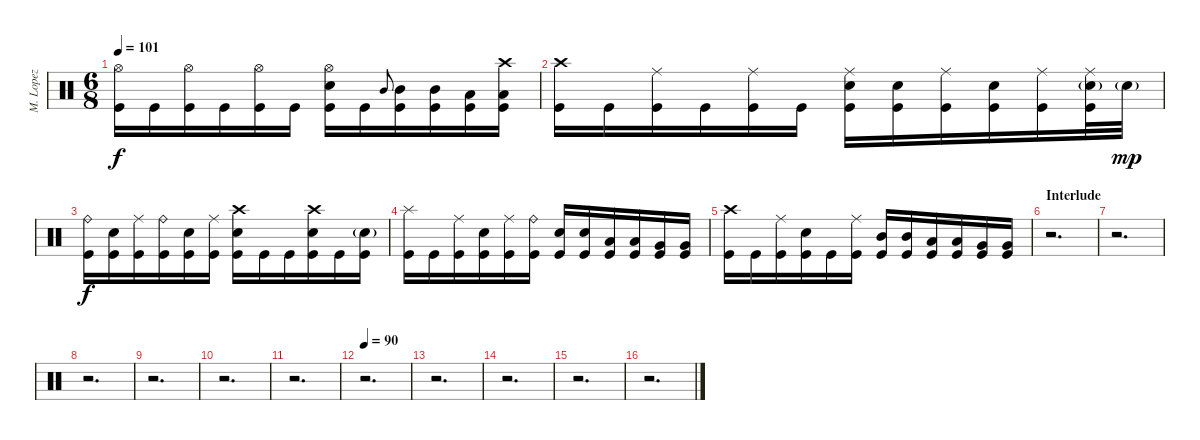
\track ("M. Lopez" "M. Lopez") {instrument percussion}
\staff {score}
\articulation defaults
\ts (6 8)
\tempo 101
\clef neutral
\ks c
("Hi-Hat (open)" "Kick (hit)").16{dy f} "Kick (hit)".16 ("Hi-Hat (open)" "Kick (hit)").16 "Kick (hit)".16 ("Hi-Hat (open)" "Kick (hit)").16 "Kick (hit)".16 ("Hi-Hat (open)" "Electric Snare (hit)" "Kick (hit)").16 "Kick (hit)".16 "Mid Tom (hit)".8{gr onbeat} ("Mid Tom (hit)" "Kick (hit)").16 ("Mid Tom (hit)" "Kick (hit)").16 ("Low Tom (hit)" "Kick (hit)").16 ("Crash high (hit)" "Low Tom (hit)" "Kick (hit)").16 |
("Crash high (hit)" "Kick (hit)").16 "Kick (hit)".16 ("Ride (middle)" "Kick (hit)").16 "Kick (hit)".16 ("Ride (middle)" "Kick (hit)").16 "Kick (hit)".16 ("Ride (middle)" "Electric Snare (hit)" "Kick (hit)").16 ("Electric Snare (hit)" "Kick (hit)").16 ("Ride (middle)" "Kick (hit)").16 ("Electric Snare (hit)" "Kick (hit)").16 ("Ride (middle)" "Kick (hit)").16 ("Ride (middle)" "Electric Snare (hit)"{g} "Kick (hit)").32 "Electric Snare (hit)"{g}.32{dy mp} |
("Ride (bell)" "Kick (hit)").16{dy f} ("Electric Snare (hit)" "Kick (hit)").16 ("Ride (middle)" "Kick (hit)").16 ("Ride (bell)" "Kick (hit)").16 ("Electric Snare (hit)" "Kick (hit)").16 ("Ride (middle)" "Kick (hit)").16 ("Crash high (hit)" "Electric Snare (hit)" "Kick (hit)").16 "Kick (hit)".16 "Kick (hit)".16 ("Crash high (hit)" "Electric Snare (hit)" "Kick (hit)").16 "Kick (hit)".16 ("Electric Snare (hit)"{g} "Kick (hit)").16 |
("Splash (hit)" "Kick (hit)").16 "Kick (hit)".16 ("Ride (middle)" "Kick (hit)").16 ("Electric Snare (hit)" "Kick (hit)").16 ("Ride (middle)" "Kick (hit)").16 ("Ride (bell)" "Kick (hit)").16 ("Electric Snare (hit)" "Kick (hit)").16 ("Electric Snare (hit)" "Kick (hit)").16 ("Low Tom (hit)" "Kick (hit)").16 ("Low Tom (hit)" "Kick (hit)").16 ("Very Low Tom (hit)" "Kick (hit)").16 ("Very Low Tom (hit)" "Kick (hit)").16 |
("Crash high (hit)" "Kick (hit)").16 "Kick (hit)".16 ("Ride (middle)" "Kick (hit)").16 ("Electric Snare (hit)" "Kick (hit)").16 "Kick (hit)".16 ("Ride (middle)" "Kick (hit)").16 ("Mid Tom (hit)" "Kick (hit)").16 ("Mid Tom (hit)" "Kick (hit)").16 ("Low Tom (hit)" "Kick (hit)").16 ("Low Tom (hit)" "Kick (hit)").16 ("Very Low Tom (hit)" "Kick (hit)").16 ("Very Low Tom (hit)" "Kick (hit)").16 |
\section ("" "Interlude")
r.2{d} |
r.2{d} |
r.2{d} |
r.2{d} |
r.2{d} |
r.2{d} |
\tempo 90
r.2{d} |
r.2{d} |
r.2{d} |
r.2{d} |
r.2{d}
